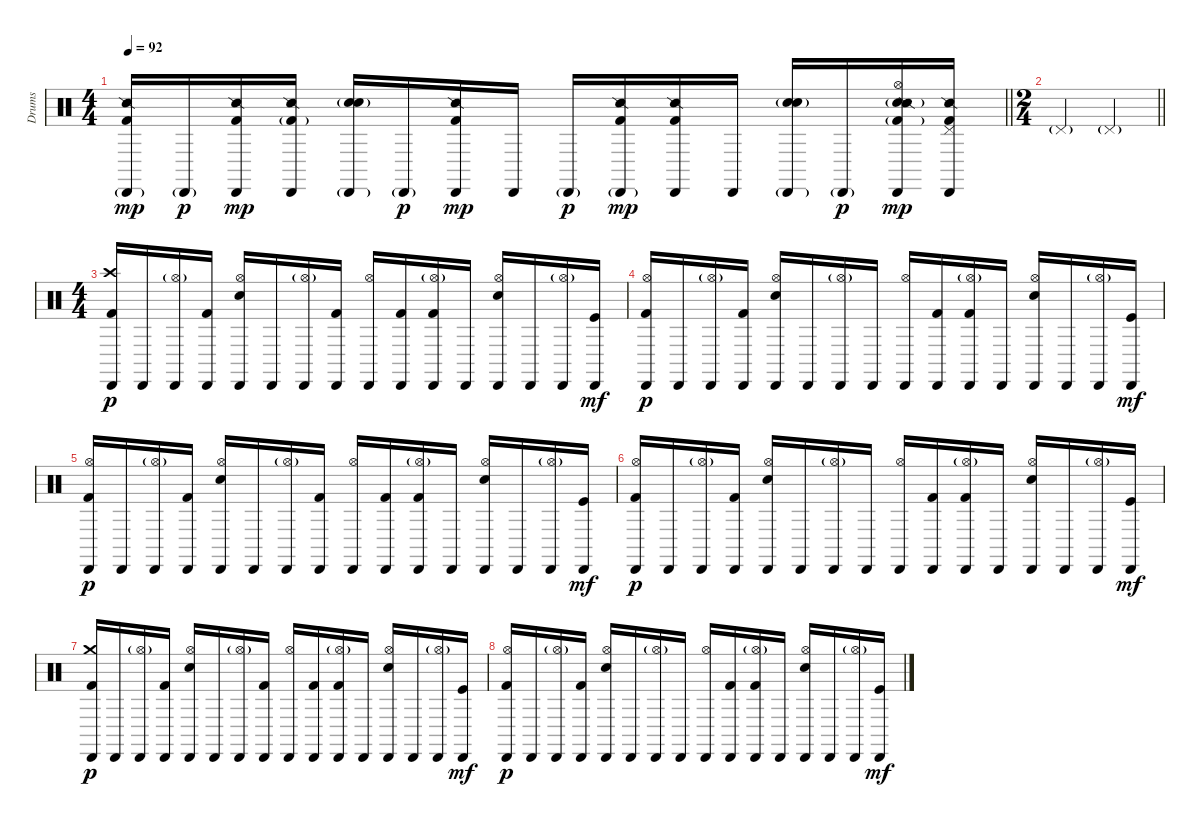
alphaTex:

\track ("Drums" "Drums") {instrument percussion}
\staff {score}
\articulation defaults
\ts (4 4)
\tempo 92
\clef neutral
\barLineRight lightlight
\ks c
("Cabasa (hit)"{g} "Kick (hit) 2" "Snare (side stick) 2").16{dy mp} "Cabasa (hit)"{g}.16{dy p} ("Cabasa (hit)" "Kick (hit) 2" "Snare (side stick) 2").16{dy mp} ("Cabasa (hit)" "Kick (hit) 2"{g} "Snare (side stick) 2").16 ("Cabasa (hit)"{g} "Hand Clap (hit)"{g} "Electric Snare (hit)").16 "Cabasa (hit)"{g}.16{dy p} ("Cabasa (hit)" "Kick (hit) 2" "Snare (side stick) 2").16{dy mp} "Cabasa (hit)".16 "Cabasa (hit)"{g}.16{dy p} ("Cabasa (hit)"{g} "Kick (hit) 2" "Snare (side stick) 2").16{dy mp} ("Cabasa (hit)" "Kick (hit) 2" "Snare (side stick) 2").16 "Cabasa (hit)".16 ("Cabasa (hit)"{g} "Hand Clap (hit)"{g} "Electric Snare (hit)").16 "Cabasa (hit)"{g}.16{dy p} ("Cabasa (hit)" "Hi-Hat (open)" "Hand Clap (hit)"{g} "Kick (hit) 2"{g} "Snare (side stick) 2").16{dy mp} ("Cabasa (hit)" "Pedal Hi-Hat (hit)" "Kick (hit) 2" "Snare (side stick) 2").16 |
\ts (2 4)
\barLineRight lightlight "Pedal Hi-Hat (hit)"{g}.4 "Pedal Hi-Hat (hit)"{g}.4
|
\ts (4 4)
("Crash high (hit)" "Cabasa (hit)" "Kick (hit) 2").16{dy p} "Cabasa (hit)".16 ("Hi-Hat (open)"{g} "Cabasa (hit)").16 ("Cabasa (hit)" "Kick (hit) 2").16 ("Hi-Hat (open)" "Cabasa (hit)" "Electric Snare (hit)").16 "Cabasa (hit)".16 ("Hi-Hat (open)"{g} "Cabasa (hit)").16 ("Cabasa (hit)" "Kick (hit) 2").16 ("Hi-Hat (open)" "Cabasa (hit)").16 ("Cabasa (hit)" "Kick (hit) 2").16 ("Hi-Hat (open)"{g} "Cabasa (hit)" "Kick (hit) 2").16 "Cabasa (hit)".16 ("Hi-Hat (open)" "Cabasa (hit)" "Electric Snare (hit)").16 "Cabasa (hit)".16 ("Hi-Hat (open)"{g} "Cabasa (hit)").16 ("Cabasa (hit)" "Kick (hit)").16{dy mf} |
("Hi-Hat (open)" "Cabasa (hit)" "Kick (hit) 2").16{dy p} "Cabasa (hit)".16 ("Hi-Hat (open)"{g} "Cabasa (hit)").16 ("Cabasa (hit)" "Kick (hit) 2").16 ("Hi-Hat (open)" "Cabasa (hit)" "Electric Snare (hit)").16 "Cabasa (hit)".16 ("Hi-Hat (open)"{g} "Cabasa (hit)").16 "Cabasa (hit)".16 ("Hi-Hat (open)" "Cabasa (hit)").16 ("Cabasa (hit)" "Kick (hit) 2").16 ("Hi-Hat (open)"{g} "Cabasa (hit)" "Kick (hit) 2").16 "Cabasa (hit)".16 ("Hi-Hat (open)" "Cabasa (hit)" "Electric Snare (hit)").16 "Cabasa (hit)".16 ("Hi-Hat (open)"{g} "Cabasa (hit)").16 ("Cabasa (hit)" "Kick (hit)").16{dy mf} |
("Hi-Hat (open)" "Cabasa (hit)" "Kick (hit) 2").16{dy p} "Cabasa (hit)".16 ("Hi-Hat (open)"{g} "Cabasa (hit)").16 ("Cabasa (hit)" "Kick (hit) 2").16 ("Hi-Hat (open)" "Cabasa (hit)" "Electric Snare (hit)").16 "Cabasa (hit)".16 ("Hi-Hat (open)"{g} "Cabasa (hit)").16 ("Cabasa (hit)" "Kick (hit) 2").16 ("Hi-Hat (open)" "Cabasa (hit)").16 ("Cabasa (hit)" "Kick (hit) 2").16 ("Hi-Hat (open)"{g} "Cabasa (hit)" "Kick (hit) 2").16 "Cabasa (hit)".16 ("Hi-Hat (open)" "Cabasa (hit)" "Electric Snare (hit)").16 "Cabasa (hit)".16 ("Hi-Hat (open)"{g} "Cabasa (hit)").16 ("Cabasa (hit)" "Kick (hit)").16{dy mf} |
("Hi-Hat (open)" "Cabasa (hit)" "Kick (hit) 2").16{dy p} "Cabasa (hit)".16 ("Hi-Hat (open)"{g} "Cabasa (hit)").16 ("Cabasa (hit)" "Kick (hit) 2").16 ("Hi-Hat (open)" "Cabasa (hit)" "Electric Snare (hit)").16 "Cabasa (hit)".16 ("Hi-Hat (open)"{g} "Cabasa (hit)").16 "Cabasa (hit)".16 ("Hi-Hat (open)" "Cabasa (hit)").16 ("Cabasa (hit)" "Kick (hit) 2").16 ("Hi-Hat (open)"{g} "Cabasa (hit)" "Kick (hit) 2").16 "Cabasa (hit)".16 ("Hi-Hat (open)" "Cabasa (hit)" "Electric Snare (hit)").16 "Cabasa (hit)".16 ("Hi-Hat (open)"{g} "Cabasa (hit)").16 ("Cabasa (hit)" "Kick (hit)").16{dy mf} |
("Crash medium (hit)" "Cabasa (hit)" "Kick (hit) 2").16{dy p} "Cabasa (hit)".16 ("Hi-Hat (open)"{g} "Cabasa (hit)").16 ("Cabasa (hit)" "Kick (hit) 2").16 ("Hi-Hat (open)" "Cabasa (hit)" "Electric Snare (hit)").16 "Cabasa (hit)".16 ("Hi-Hat (open)"{g} "Cabasa (hit)").16 ("Cabasa (hit)" "Kick (hit) 2").16 ("Hi-Hat (open)" "Cabasa (hit)").16 ("Cabasa (hit)" "Kick (hit) 2").16 ("Hi-Hat (open)"{g} "Cabasa (hit)" "Kick (hit) 2").16 "Cabasa (hit)".16 ("Hi-Hat (open)" "Cabasa (hit)" "Electric Snare (hit)").16 "Cabasa (hit)".16 ("Hi-Hat (open)"{g} "Cabasa (hit)").16 ("Cabasa (hit)" "Kick (hit)").16{dy mf} |
("Hi-Hat (open)" "Cabasa (hit)" "Kick (hit) 2").16{dy p} "Cabasa (hit)".16 ("Hi-Hat (open)"{g} "Cabasa (hit)").16 ("Cabasa (hit)" "Kick (hit) 2").16 ("Hi-Hat (open)" "Cabasa (hit)" "Electric Snare (hit)").16 "Cabasa (hit)".16 ("Hi-Hat (open)"{g} "Cabasa (hit)").16 "Cabasa (hit)".16 ("Hi-Hat (open)" "Cabasa (hit)").16 ("Cabasa (hit)" "Kick (hit) 2").16 ("Hi-Hat (open)"{g} "Cabasa (hit)" "Kick (hit) 2").16 "Cabasa (hit)".16 ("Hi-Hat (open)" "Cabasa (hit)" "Electric Snare (hit)").16 "Cabasa (hit)".16 ("Hi-Hat (open)"{g} "Cabasa (hit)").16 ("Cabasa (hit)" "Kick (hit)").16{dy mf}
